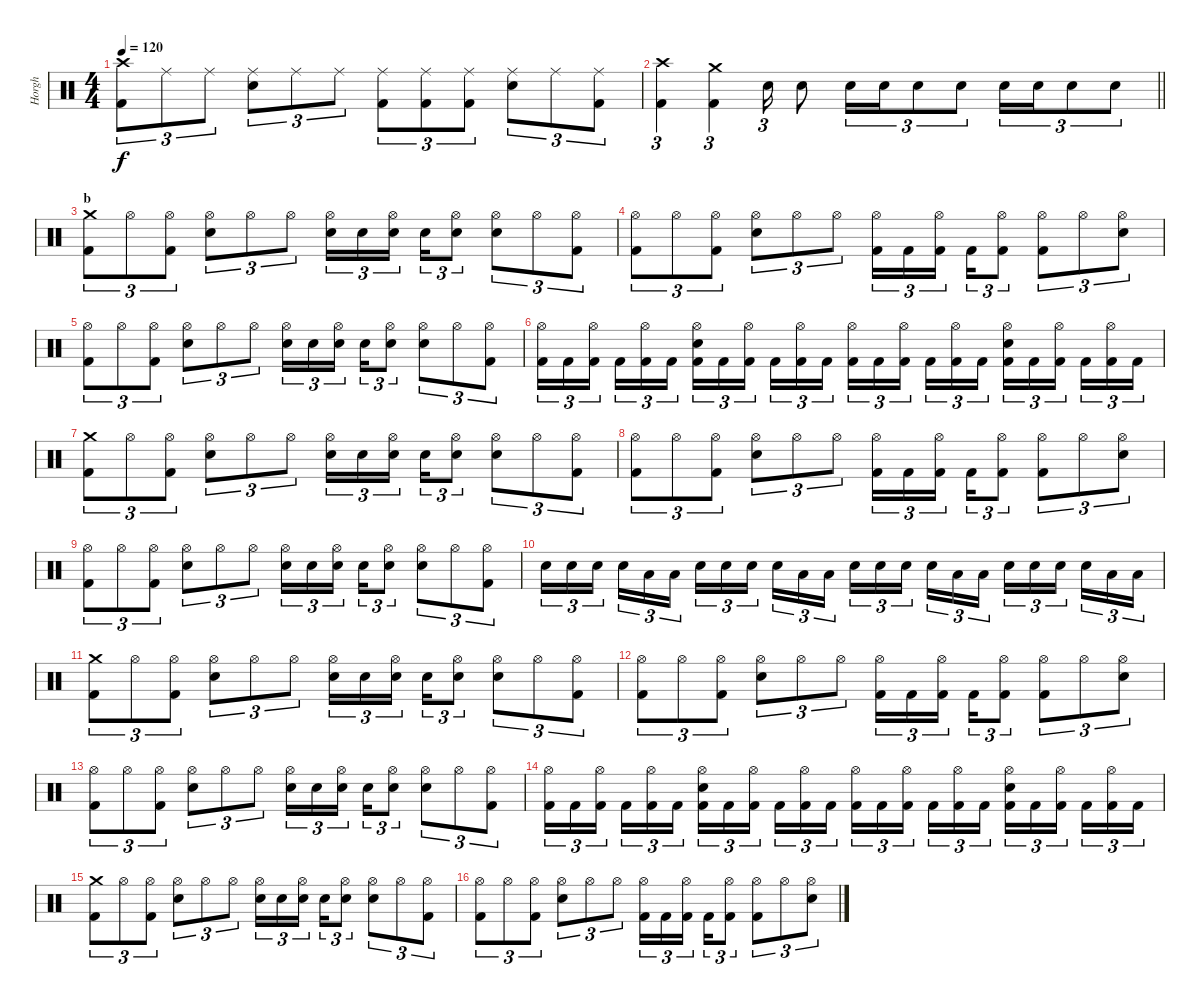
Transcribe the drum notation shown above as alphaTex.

\track ("Horgh" "Horgh") {instrument percussion}
\staff {score}
\articulation defaults
\ts (4 4)
\tempo 120
\clef neutral
\ks c
("Crash high (hit)" "Kick (hit) 2").8{tu (3 2) dy f} "Ride (middle)".8{tu (3 2)} "Ride (middle)".8{tu (3 2)} ("Ride (middle)" "Electric Snare (hit)").8{tu (3 2)} "Ride (middle)".8{tu (3 2)} "Ride (middle)".8{tu (3 2)} ("Ride (middle)" "Kick (hit) 2").8{tu (3 2)} ("Ride (middle)" "Kick (hit) 2").8{tu (3 2)} ("Ride (middle)" "Kick (hit) 2").8{tu (3 2)} ("Ride (middle)" "Electric Snare (hit)").8{tu (3 2)} "Ride (middle)".8{tu (3 2)} ("Ride (middle)" "Kick (hit) 2").8{tu (3 2)} |
\barLineRight lightlight
("Crash high (hit)" "Kick (hit) 2").4{tu (3 2)} ("Crash medium (hit)" "Kick (hit) 2").4{tu (3 2)} "Electric Snare (hit)".16{tu (3 2)} "Electric Snare (hit)".8 "Electric Snare (hit)".16{tu (3 2)} "Electric Snare (hit)".16{tu (3 2)} "Electric Snare (hit)".8{tu (3 2)} "Electric Snare (hit)".8{tu (3 2)} "Electric Snare (hit)".16{tu (3 2)} "Electric Snare (hit)".16{tu (3 2)} "Electric Snare (hit)".8{tu (3 2)} "Electric Snare (hit)".8{tu (3 2)} |
\section ("" "b")
("Crash medium (hit)" "Kick (hit) 2").8{tu (3 2)} "Hi-Hat (open)".8{tu (3 2)} ("Hi-Hat (open)" "Kick (hit) 2").8{tu (3 2)} ("Hi-Hat (open)" "Electric Snare (hit)").8{tu (3 2)} "Hi-Hat (open)".8{tu (3 2)} "Hi-Hat (open)".8{tu (3 2)} ("Hi-Hat (open)" "Electric Snare (hit)").16{tu (3 2)} "Electric Snare (hit)".16{tu (3 2)} ("Hi-Hat (open)" "Electric Snare (hit)").16{tu (3 2) beam splitsecondary} "Electric Snare (hit)".16{tu (3 2)} ("Hi-Hat (open)" "Electric Snare (hit)").8{tu (3 2)} ("Hi-Hat (open)" "Electric Snare (hit)").8{tu (3 2)} "Hi-Hat (open)".8{tu (3 2)} ("Hi-Hat (open)" "Kick (hit) 2").8{tu (3 2)} |
("Hi-Hat (open)" "Kick (hit) 2").8{tu (3 2)} "Hi-Hat (open)".8{tu (3 2)} ("Hi-Hat (open)" "Kick (hit) 2").8{tu (3 2)} ("Hi-Hat (open)" "Electric Snare (hit)").8{tu (3 2)} "Hi-Hat (open)".8{tu (3 2)} "Hi-Hat (open)".8{tu (3 2)} ("Hi-Hat (open)" "Kick (hit) 2").16{tu (3 2)} "Kick (hit) 2".16{tu (3 2)} ("Hi-Hat (open)" "Kick (hit) 2").16{tu (3 2) beam splitsecondary} "Kick (hit) 2".16{tu (3 2)} ("Hi-Hat (open)" "Kick (hit) 2").8{tu (3 2)} ("Hi-Hat (open)" "Kick (hit) 2").8{tu (3 2)} "Hi-Hat (open)".8{tu (3 2)} ("Hi-Hat (open)" "Electric Snare (hit)").8{tu (3 2)} |
("Hi-Hat (open)" "Kick (hit) 2").8{tu (3 2)} "Hi-Hat (open)".8{tu (3 2)} ("Hi-Hat (open)" "Kick (hit) 2").8{tu (3 2)} ("Hi-Hat (open)" "Electric Snare (hit)").8{tu (3 2)} "Hi-Hat (open)".8{tu (3 2)} "Hi-Hat (open)".8{tu (3 2)} ("Hi-Hat (open)" "Electric Snare (hit)").16{tu (3 2)} "Electric Snare (hit)".16{tu (3 2)} ("Hi-Hat (open)" "Electric Snare (hit)").16{tu (3 2) beam splitsecondary} "Electric Snare (hit)".16{tu (3 2)} ("Hi-Hat (open)" "Electric Snare (hit)").8{tu (3 2)} ("Hi-Hat (open)" "Electric Snare (hit)").8{tu (3 2)} "Hi-Hat (open)".8{tu (3 2)} ("Hi-Hat (open)" "Kick (hit) 2").8{tu (3 2)} |
("Hi-Hat (open)" "Kick (hit) 2").16{tu (3 2)} "Kick (hit) 2".16{tu (3 2)} ("Hi-Hat (open)" "Kick (hit) 2").16{tu (3 2) beam splitsecondary} "Kick (hit) 2".16{tu (3 2)} ("Hi-Hat (open)" "Kick (hit) 2").16{tu (3 2)} "Kick (hit) 2".16{tu (3 2)} ("Hi-Hat (open)" "Electric Snare (hit)" "Kick (hit) 2").16{tu (3 2)} "Kick (hit) 2".16{tu (3 2)} ("Hi-Hat (open)" "Kick (hit) 2").16{tu (3 2) beam splitsecondary} "Kick (hit) 2".16{tu (3 2)} ("Hi-Hat (open)" "Kick (hit) 2").16{tu (3 2)} "Kick (hit) 2".16{tu (3 2)} ("Hi-Hat (open)" "Kick (hit) 2").16{tu (3 2)} "Kick (hit) 2".16{tu (3 2)} ("Hi-Hat (open)" "Kick (hit) 2").16{tu (3 2) beam splitsecondary} "Kick (hit) 2".16{tu (3 2)} ("Hi-Hat (open)" "Kick (hit) 2").16{tu (3 2)} "Kick (hit) 2".16{tu (3 2)} ("Hi-Hat (open)" "Electric Snare (hit)" "Kick (hit) 2").16{tu (3 2)} "Kick (hit) 2".16{tu (3 2)} ("Hi-Hat (open)" "Kick (hit) 2").16{tu (3 2) beam splitsecondary} "Kick (hit) 2".16{tu (3 2)} ("Hi-Hat (open)" "Kick (hit) 2").16{tu (3 2)} "Kick (hit) 2".16{tu (3 2)} |
("Crash medium (hit)" "Kick (hit) 2").8{tu (3 2)} "Hi-Hat (open)".8{tu (3 2)} ("Hi-Hat (open)" "Kick (hit) 2").8{tu (3 2)} ("Hi-Hat (open)" "Electric Snare (hit)").8{tu (3 2)} "Hi-Hat (open)".8{tu (3 2)} "Hi-Hat (open)".8{tu (3 2)} ("Hi-Hat (open)" "Electric Snare (hit)").16{tu (3 2)} "Electric Snare (hit)".16{tu (3 2)} ("Hi-Hat (open)" "Electric Snare (hit)").16{tu (3 2) beam splitsecondary} "Electric Snare (hit)".16{tu (3 2)} ("Hi-Hat (open)" "Electric Snare (hit)").8{tu (3 2)} ("Hi-Hat (open)" "Electric Snare (hit)").8{tu (3 2)} "Hi-Hat (open)".8{tu (3 2)} ("Hi-Hat (open)" "Kick (hit) 2").8{tu (3 2)} |
("Hi-Hat (open)" "Kick (hit) 2").8{tu (3 2)} "Hi-Hat (open)".8{tu (3 2)} ("Hi-Hat (open)" "Kick (hit) 2").8{tu (3 2)} ("Hi-Hat (open)" "Electric Snare (hit)").8{tu (3 2)} "Hi-Hat (open)".8{tu (3 2)} "Hi-Hat (open)".8{tu (3 2)} ("Hi-Hat (open)" "Kick (hit) 2").16{tu (3 2)} "Kick (hit) 2".16{tu (3 2)} ("Hi-Hat (open)" "Kick (hit) 2").16{tu (3 2) beam splitsecondary} "Kick (hit) 2".16{tu (3 2)} ("Hi-Hat (open)" "Kick (hit) 2").8{tu (3 2)} ("Hi-Hat (open)" "Kick (hit) 2").8{tu (3 2)} "Hi-Hat (open)".8{tu (3 2)} ("Hi-Hat (open)" "Electric Snare (hit)").8{tu (3 2)} |
("Hi-Hat (open)" "Kick (hit) 2").8{tu (3 2)} "Hi-Hat (open)".8{tu (3 2)} ("Hi-Hat (open)" "Kick (hit) 2").8{tu (3 2)} ("Hi-Hat (open)" "Electric Snare (hit)").8{tu (3 2)} "Hi-Hat (open)".8{tu (3 2)} "Hi-Hat (open)".8{tu (3 2)} ("Hi-Hat (open)" "Electric Snare (hit)").16{tu (3 2)} "Electric Snare (hit)".16{tu (3 2)} ("Hi-Hat (open)" "Electric Snare (hit)").16{tu (3 2) beam splitsecondary} "Electric Snare (hit)".16{tu (3 2)} ("Hi-Hat (open)" "Electric Snare (hit)").8{tu (3 2)} ("Hi-Hat (open)" "Electric Snare (hit)").8{tu (3 2)} "Hi-Hat (open)".8{tu (3 2)} ("Hi-Hat (open)" "Kick (hit) 2").8{tu (3 2)} |
"Electric Snare (hit)".16{tu (3 2)} "Electric Snare (hit)".16{tu (3 2)} "Electric Snare (hit)".16{tu (3 2) beam splitsecondary} "Electric Snare (hit)".16{tu (3 2)} "Low Tom (hit)".16{tu (3 2)} "Low Tom (hit)".16{tu (3 2)} "Electric Snare (hit)".16{tu (3 2)} "Electric Snare (hit)".16{tu (3 2)} "Electric Snare (hit)".16{tu (3 2) beam splitsecondary} "Electric Snare (hit)".16{tu (3 2)} "Low Tom (hit)".16{tu (3 2)} "Low Tom (hit)".16{tu (3 2)} "Electric Snare (hit)".16{tu (3 2)} "Electric Snare (hit)".16{tu (3 2)} "Electric Snare (hit)".16{tu (3 2) beam splitsecondary} "Electric Snare (hit)".16{tu (3 2)} "Low Tom (hit)".16{tu (3 2)} "Low Tom (hit)".16{tu (3 2)} "Electric Snare (hit)".16{tu (3 2)} "Electric Snare (hit)".16{tu (3 2)} "Electric Snare (hit)".16{tu (3 2) beam splitsecondary} "Electric Snare (hit)".16{tu (3 2)} "Low Tom (hit)".16{tu (3 2)} "Low Tom (hit)".16{tu (3 2)} |
("Crash medium (hit)" "Kick (hit) 2").8{tu (3 2)} "Hi-Hat (open)".8{tu (3 2)} ("Hi-Hat (open)" "Kick (hit) 2").8{tu (3 2)} ("Hi-Hat (open)" "Electric Snare (hit)").8{tu (3 2)} "Hi-Hat (open)".8{tu (3 2)} "Hi-Hat (open)".8{tu (3 2)} ("Hi-Hat (open)" "Electric Snare (hit)").16{tu (3 2)} "Electric Snare (hit)".16{tu (3 2)} ("Hi-Hat (open)" "Electric Snare (hit)").16{tu (3 2) beam splitsecondary} "Electric Snare (hit)".16{tu (3 2)} ("Hi-Hat (open)" "Electric Snare (hit)").8{tu (3 2)} ("Hi-Hat (open)" "Electric Snare (hit)").8{tu (3 2)} "Hi-Hat (open)".8{tu (3 2)} ("Hi-Hat (open)" "Kick (hit) 2").8{tu (3 2)} |
("Hi-Hat (open)" "Kick (hit) 2").8{tu (3 2)} "Hi-Hat (open)".8{tu (3 2)} ("Hi-Hat (open)" "Kick (hit) 2").8{tu (3 2)} ("Hi-Hat (open)" "Electric Snare (hit)").8{tu (3 2)} "Hi-Hat (open)".8{tu (3 2)} "Hi-Hat (open)".8{tu (3 2)} ("Hi-Hat (open)" "Kick (hit) 2").16{tu (3 2)} "Kick (hit) 2".16{tu (3 2)} ("Hi-Hat (open)" "Kick (hit) 2").16{tu (3 2) beam splitsecondary} "Kick (hit) 2".16{tu (3 2)} ("Hi-Hat (open)" "Kick (hit) 2").8{tu (3 2)} ("Hi-Hat (open)" "Kick (hit) 2").8{tu (3 2)} "Hi-Hat (open)".8{tu (3 2)} ("Hi-Hat (open)" "Electric Snare (hit)").8{tu (3 2)} |
("Hi-Hat (open)" "Kick (hit) 2").8{tu (3 2)} "Hi-Hat (open)".8{tu (3 2)} ("Hi-Hat (open)" "Kick (hit) 2").8{tu (3 2)} ("Hi-Hat (open)" "Electric Snare (hit)").8{tu (3 2)} "Hi-Hat (open)".8{tu (3 2)} "Hi-Hat (open)".8{tu (3 2)} ("Hi-Hat (open)" "Electric Snare (hit)").16{tu (3 2)} "Electric Snare (hit)".16{tu (3 2)} ("Hi-Hat (open)" "Electric Snare (hit)").16{tu (3 2) beam splitsecondary} "Electric Snare (hit)".16{tu (3 2)} ("Hi-Hat (open)" "Electric Snare (hit)").8{tu (3 2)} ("Hi-Hat (open)" "Electric Snare (hit)").8{tu (3 2)} "Hi-Hat (open)".8{tu (3 2)} ("Hi-Hat (open)" "Kick (hit) 2").8{tu (3 2)} |
("Hi-Hat (open)" "Kick (hit) 2").16{tu (3 2)} "Kick (hit) 2".16{tu (3 2)} ("Hi-Hat (open)" "Kick (hit) 2").16{tu (3 2) beam splitsecondary} "Kick (hit) 2".16{tu (3 2)} ("Hi-Hat (open)" "Kick (hit) 2").16{tu (3 2)} "Kick (hit) 2".16{tu (3 2)} ("Hi-Hat (open)" "Electric Snare (hit)" "Kick (hit) 2").16{tu (3 2)} "Kick (hit) 2".16{tu (3 2)} ("Hi-Hat (open)" "Kick (hit) 2").16{tu (3 2) beam splitsecondary} "Kick (hit) 2".16{tu (3 2)} ("Hi-Hat (open)" "Kick (hit) 2").16{tu (3 2)} "Kick (hit) 2".16{tu (3 2)} ("Hi-Hat (open)" "Kick (hit) 2").16{tu (3 2)} "Kick (hit) 2".16{tu (3 2)} ("Hi-Hat (open)" "Kick (hit) 2").16{tu (3 2) beam splitsecondary} "Kick (hit) 2".16{tu (3 2)} ("Hi-Hat (open)" "Kick (hit) 2").16{tu (3 2)} "Kick (hit) 2".16{tu (3 2)} ("Hi-Hat (open)" "Electric Snare (hit)" "Kick (hit) 2").16{tu (3 2)} "Kick (hit) 2".16{tu (3 2)} ("Hi-Hat (open)" "Kick (hit) 2").16{tu (3 2) beam splitsecondary} "Kick (hit) 2".16{tu (3 2)} ("Hi-Hat (open)" "Kick (hit) 2").16{tu (3 2)} "Kick (hit) 2".16{tu (3 2)} |
("Crash medium (hit)" "Kick (hit) 2").8{tu (3 2)} "Hi-Hat (open)".8{tu (3 2)} ("Hi-Hat (open)" "Kick (hit) 2").8{tu (3 2)} ("Hi-Hat (open)" "Electric Snare (hit)").8{tu (3 2)} "Hi-Hat (open)".8{tu (3 2)} "Hi-Hat (open)".8{tu (3 2)} ("Hi-Hat (open)" "Electric Snare (hit)").16{tu (3 2)} "Electric Snare (hit)".16{tu (3 2)} ("Hi-Hat (open)" "Electric Snare (hit)").16{tu (3 2) beam splitsecondary} "Electric Snare (hit)".16{tu (3 2)} ("Hi-Hat (open)" "Electric Snare (hit)").8{tu (3 2)} ("Hi-Hat (open)" "Electric Snare (hit)").8{tu (3 2)} "Hi-Hat (open)".8{tu (3 2)} ("Hi-Hat (open)" "Kick (hit) 2").8{tu (3 2)} |
("Hi-Hat (open)" "Kick (hit) 2").8{tu (3 2)} "Hi-Hat (open)".8{tu (3 2)} ("Hi-Hat (open)" "Kick (hit) 2").8{tu (3 2)} ("Hi-Hat (open)" "Electric Snare (hit)").8{tu (3 2)} "Hi-Hat (open)".8{tu (3 2)} "Hi-Hat (open)".8{tu (3 2)} ("Hi-Hat (open)" "Kick (hit) 2").16{tu (3 2)} "Kick (hit) 2".16{tu (3 2)} ("Hi-Hat (open)" "Kick (hit) 2").16{tu (3 2) beam splitsecondary} "Kick (hit) 2".16{tu (3 2)} ("Hi-Hat (open)" "Kick (hit) 2").8{tu (3 2)} ("Hi-Hat (open)" "Kick (hit) 2").8{tu (3 2)} "Hi-Hat (open)".8{tu (3 2)} ("Hi-Hat (open)" "Electric Snare (hit)").8{tu (3 2)}
